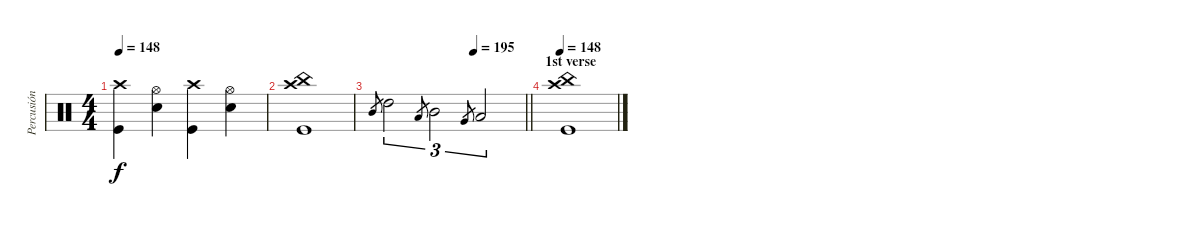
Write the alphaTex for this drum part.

\track ("Percusión" "Percusión") {instrument percussion}
\staff {score}
\articulation defaults
\ts (4 4)
\tempo 148
\clef neutral
\ks c
("Crash high (hit)" "Kick (hit)").4{dy f} ("Hi-Hat (open)" "Electric Snare (hit)").4 ("Crash high (hit)" "Kick (hit)").4 ("Hi-Hat (open)" "Electric Snare (hit)").4 |
("Crash high (hit)" "China (hit)" "Kick (hit)").1 |
\tempo (195 0.6666666666666666)
\barLineRight lightlight "Mid Tom (hit)".8{gr} "High Tom (hit)".2{tu (3 2)} "Low Tom (hit)".8{gr} "Mid Tom (hit)".2{tu (3 2)} "Very Low Tom (hit)".8{gr} "Low Tom (hit)".2{tu (3 2)}
|
\section ("" "1st verse")
\tempo 148
("Crash high (hit)" "China (hit)" "Kick (hit)").1
